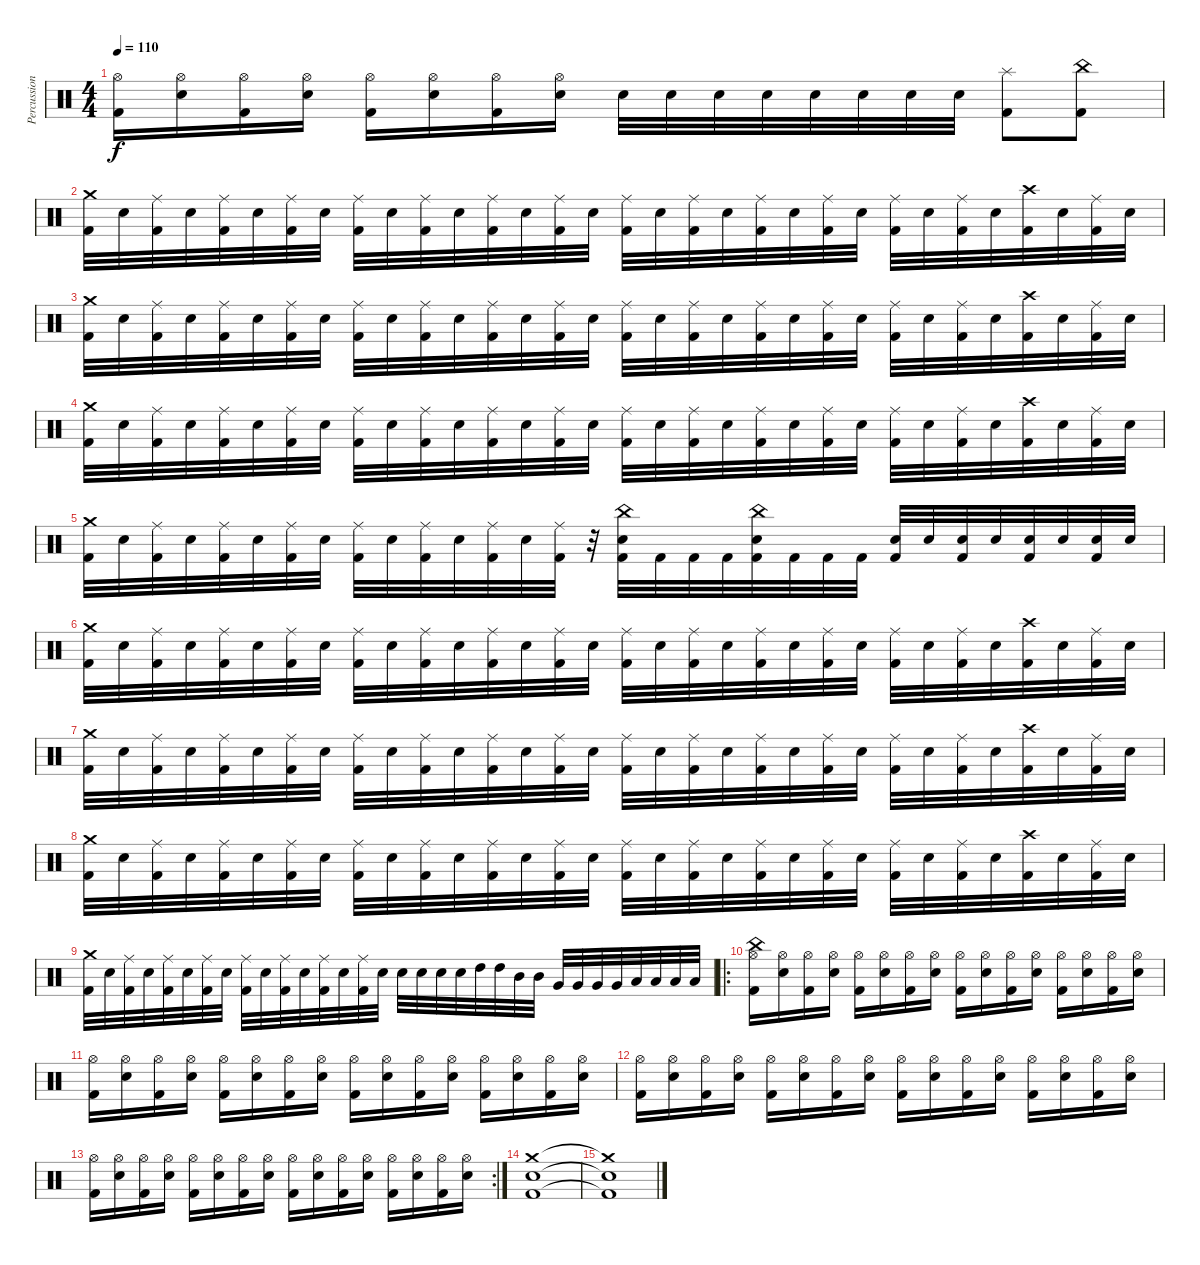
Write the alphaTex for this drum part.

\track ("Percussion" "Percussion") {instrument percussion}
\staff {score}
\articulation defaults
\ts (4 4)
\tempo 110
\clef neutral
\ks c
("Hi-Hat (open)" "Kick (hit) 2").16{dy f} ("Hi-Hat (open)" "Electric Snare (hit)").16 ("Hi-Hat (open)" "Kick (hit) 2").16 ("Hi-Hat (open)" "Electric Snare (hit)").16 ("Hi-Hat (open)" "Kick (hit) 2").16 ("Hi-Hat (open)" "Electric Snare (hit)").16 ("Hi-Hat (open)" "Kick (hit) 2").16 ("Hi-Hat (open)" "Electric Snare (hit)").16 "Electric Snare (hit)".32 "Electric Snare (hit)".32 "Electric Snare (hit)".32 "Electric Snare (hit)".32 "Electric Snare (hit)".32 "Electric Snare (hit)".32 "Electric Snare (hit)".32 "Electric Snare (hit)".32 ("Splash (hit)" "Kick (hit) 2").8 ("China (hit)" "Kick (hit) 2").8 |
("Crash medium (hit)" "Kick (hit) 2").32 "Electric Snare (hit)".32 ("Ride (middle)" "Kick (hit) 2").32 "Electric Snare (hit)".32 ("Ride (middle)" "Kick (hit) 2").32 "Electric Snare (hit)".32 ("Ride (middle)" "Kick (hit) 2").32 "Electric Snare (hit)".32 ("Ride (middle)" "Kick (hit) 2").32 "Electric Snare (hit)".32 ("Ride (middle)" "Kick (hit) 2").32 "Electric Snare (hit)".32 ("Ride (middle)" "Kick (hit) 2").32 "Electric Snare (hit)".32 ("Ride (middle)" "Kick (hit) 2").32 "Electric Snare (hit)".32 ("Ride (middle)" "Kick (hit) 2").32 "Electric Snare (hit)".32 ("Ride (middle)" "Kick (hit) 2").32 "Electric Snare (hit)".32 ("Ride (middle)" "Kick (hit) 2").32 "Electric Snare (hit)".32 ("Ride (middle)" "Kick (hit) 2").32 "Electric Snare (hit)".32 ("Ride (middle)" "Kick (hit) 2").32 "Electric Snare (hit)".32 ("Ride (middle)" "Kick (hit) 2").32 "Electric Snare (hit)".32 ("Crash high (hit)" "Kick (hit) 2").32 "Electric Snare (hit)".32 ("Ride (middle)" "Kick (hit) 2").32 "Electric Snare (hit)".32 |
("Crash medium (hit)" "Kick (hit) 2").32 "Electric Snare (hit)".32 ("Ride (middle)" "Kick (hit) 2").32 "Electric Snare (hit)".32 ("Ride (middle)" "Kick (hit) 2").32 "Electric Snare (hit)".32 ("Ride (middle)" "Kick (hit) 2").32 "Electric Snare (hit)".32 ("Ride (middle)" "Kick (hit) 2").32 "Electric Snare (hit)".32 ("Ride (middle)" "Kick (hit) 2").32 "Electric Snare (hit)".32 ("Ride (middle)" "Kick (hit) 2").32 "Electric Snare (hit)".32 ("Ride (middle)" "Kick (hit) 2").32 "Electric Snare (hit)".32 ("Ride (middle)" "Kick (hit) 2").32 "Electric Snare (hit)".32 ("Ride (middle)" "Kick (hit) 2").32 "Electric Snare (hit)".32 ("Ride (middle)" "Kick (hit) 2").32 "Electric Snare (hit)".32 ("Ride (middle)" "Kick (hit) 2").32 "Electric Snare (hit)".32 ("Ride (middle)" "Kick (hit) 2").32 "Electric Snare (hit)".32 ("Ride (middle)" "Kick (hit) 2").32 "Electric Snare (hit)".32 ("Crash high (hit)" "Kick (hit) 2").32 "Electric Snare (hit)".32 ("Ride (middle)" "Kick (hit) 2").32 "Electric Snare (hit)".32 |
("Crash medium (hit)" "Kick (hit) 2").32 "Electric Snare (hit)".32 ("Ride (middle)" "Kick (hit) 2").32 "Electric Snare (hit)".32 ("Ride (middle)" "Kick (hit) 2").32 "Electric Snare (hit)".32 ("Ride (middle)" "Kick (hit) 2").32 "Electric Snare (hit)".32 ("Ride (middle)" "Kick (hit) 2").32 "Electric Snare (hit)".32 ("Ride (middle)" "Kick (hit) 2").32 "Electric Snare (hit)".32 ("Ride (middle)" "Kick (hit) 2").32 "Electric Snare (hit)".32 ("Ride (middle)" "Kick (hit) 2").32 "Electric Snare (hit)".32 ("Ride (middle)" "Kick (hit) 2").32 "Electric Snare (hit)".32 ("Ride (middle)" "Kick (hit) 2").32 "Electric Snare (hit)".32 ("Ride (middle)" "Kick (hit) 2").32 "Electric Snare (hit)".32 ("Ride (middle)" "Kick (hit) 2").32 "Electric Snare (hit)".32 ("Ride (middle)" "Kick (hit) 2").32 "Electric Snare (hit)".32 ("Ride (middle)" "Kick (hit) 2").32 "Electric Snare (hit)".32 ("Crash high (hit)" "Kick (hit) 2").32 "Electric Snare (hit)".32 ("Ride (middle)" "Kick (hit) 2").32 "Electric Snare (hit)".32 |
("Crash medium (hit)" "Kick (hit) 2").32 "Electric Snare (hit)".32 ("Ride (middle)" "Kick (hit) 2").32 "Electric Snare (hit)".32 ("Ride (middle)" "Kick (hit) 2").32 "Electric Snare (hit)".32 ("Ride (middle)" "Kick (hit) 2").32 "Electric Snare (hit)".32 ("Ride (middle)" "Kick (hit) 2").32 "Electric Snare (hit)".32 ("Ride (middle)" "Kick (hit) 2").32 "Electric Snare (hit)".32 ("Ride (middle)" "Kick (hit) 2").32 "Electric Snare (hit)".32 ("Ride (middle)" "Kick (hit) 2").32 r.32 ("China (hit)" "Electric Snare (hit)" "Kick (hit) 2").32 "Kick (hit) 2".32 "Kick (hit) 2".32 "Kick (hit) 2".32 ("China (hit)" "Electric Snare (hit)" "Kick (hit) 2").32 "Kick (hit) 2".32 "Kick (hit) 2".32 "Kick (hit) 2".32 ("Electric Snare (hit)" "Kick (hit) 2").32 "Electric Snare (hit)".32 ("Electric Snare (hit)" "Kick (hit) 2").32 "Electric Snare (hit)".32 ("Electric Snare (hit)" "Kick (hit) 2").32 "Electric Snare (hit)".32 ("Electric Snare (hit)" "Kick (hit) 2").32 "Electric Snare (hit)".32 |
("Crash medium (hit)" "Kick (hit) 2").32 "Electric Snare (hit)".32 ("Ride (middle)" "Kick (hit) 2").32 "Electric Snare (hit)".32 ("Ride (middle)" "Kick (hit) 2").32 "Electric Snare (hit)".32 ("Ride (middle)" "Kick (hit) 2").32 "Electric Snare (hit)".32 ("Ride (middle)" "Kick (hit) 2").32 "Electric Snare (hit)".32 ("Ride (middle)" "Kick (hit) 2").32 "Electric Snare (hit)".32 ("Ride (middle)" "Kick (hit) 2").32 "Electric Snare (hit)".32 ("Ride (middle)" "Kick (hit) 2").32 "Electric Snare (hit)".32 ("Ride (middle)" "Kick (hit) 2").32 "Electric Snare (hit)".32 ("Ride (middle)" "Kick (hit) 2").32 "Electric Snare (hit)".32 ("Ride (middle)" "Kick (hit) 2").32 "Electric Snare (hit)".32 ("Ride (middle)" "Kick (hit) 2").32 "Electric Snare (hit)".32 ("Ride (middle)" "Kick (hit) 2").32 "Electric Snare (hit)".32 ("Ride (middle)" "Kick (hit) 2").32 "Electric Snare (hit)".32 ("Crash high (hit)" "Kick (hit) 2").32 "Electric Snare (hit)".32 ("Ride (middle)" "Kick (hit) 2").32 "Electric Snare (hit)".32 |
("Crash medium (hit)" "Kick (hit) 2").32 "Electric Snare (hit)".32 ("Ride (middle)" "Kick (hit) 2").32 "Electric Snare (hit)".32 ("Ride (middle)" "Kick (hit) 2").32 "Electric Snare (hit)".32 ("Ride (middle)" "Kick (hit) 2").32 "Electric Snare (hit)".32 ("Ride (middle)" "Kick (hit) 2").32 "Electric Snare (hit)".32 ("Ride (middle)" "Kick (hit) 2").32 "Electric Snare (hit)".32 ("Ride (middle)" "Kick (hit) 2").32 "Electric Snare (hit)".32 ("Ride (middle)" "Kick (hit) 2").32 "Electric Snare (hit)".32 ("Ride (middle)" "Kick (hit) 2").32 "Electric Snare (hit)".32 ("Ride (middle)" "Kick (hit) 2").32 "Electric Snare (hit)".32 ("Ride (middle)" "Kick (hit) 2").32 "Electric Snare (hit)".32 ("Ride (middle)" "Kick (hit) 2").32 "Electric Snare (hit)".32 ("Ride (middle)" "Kick (hit) 2").32 "Electric Snare (hit)".32 ("Ride (middle)" "Kick (hit) 2").32 "Electric Snare (hit)".32 ("Crash high (hit)" "Kick (hit) 2").32 "Electric Snare (hit)".32 ("Ride (middle)" "Kick (hit) 2").32 "Electric Snare (hit)".32 |
("Crash medium (hit)" "Kick (hit) 2").32 "Electric Snare (hit)".32 ("Ride (middle)" "Kick (hit) 2").32 "Electric Snare (hit)".32 ("Ride (middle)" "Kick (hit) 2").32 "Electric Snare (hit)".32 ("Ride (middle)" "Kick (hit) 2").32 "Electric Snare (hit)".32 ("Ride (middle)" "Kick (hit) 2").32 "Electric Snare (hit)".32 ("Ride (middle)" "Kick (hit) 2").32 "Electric Snare (hit)".32 ("Ride (middle)" "Kick (hit) 2").32 "Electric Snare (hit)".32 ("Ride (middle)" "Kick (hit) 2").32 "Electric Snare (hit)".32 ("Ride (middle)" "Kick (hit) 2").32 "Electric Snare (hit)".32 ("Ride (middle)" "Kick (hit) 2").32 "Electric Snare (hit)".32 ("Ride (middle)" "Kick (hit) 2").32 "Electric Snare (hit)".32 ("Ride (middle)" "Kick (hit) 2").32 "Electric Snare (hit)".32 ("Ride (middle)" "Kick (hit) 2").32 "Electric Snare (hit)".32 ("Ride (middle)" "Kick (hit) 2").32 "Electric Snare (hit)".32 ("Crash high (hit)" "Kick (hit) 2").32 "Electric Snare (hit)".32 ("Ride (middle)" "Kick (hit) 2").32 "Electric Snare (hit)".32 |
("Crash medium (hit)" "Kick (hit) 2").32 "Electric Snare (hit)".32 ("Ride (middle)" "Kick (hit) 2").32 "Electric Snare (hit)".32 ("Ride (middle)" "Kick (hit) 2").32 "Electric Snare (hit)".32 ("Ride (middle)" "Kick (hit) 2").32 "Electric Snare (hit)".32 ("Ride (middle)" "Kick (hit) 2").32 "Electric Snare (hit)".32 ("Ride (middle)" "Kick (hit) 2").32 "Electric Snare (hit)".32 ("Ride (middle)" "Kick (hit) 2").32 "Electric Snare (hit)".32 ("Ride (middle)" "Kick (hit) 2").32 "Electric Snare (hit)".32 "Electric Snare (hit)".32 "Electric Snare (hit)".32 "Electric Snare (hit)".32 "Electric Snare (hit)".32 "High Tom (hit)".32 "High Tom (hit)".32 "Mid Tom (hit)".32 "Mid Tom (hit)".32 "Very Low Tom (hit)".32 "Very Low Tom (hit)".32 "Very Low Tom (hit)".32 "Very Low Tom (hit)".32 "Low Floor Tom (hit)".32 "Low Floor Tom (hit)".32 "Low Floor Tom (hit)".32 "Low Floor Tom (hit)".32 |
\ro
("China (hit)" "Hi-Hat (open)" "Kick (hit) 2").16 ("Hi-Hat (open)" "Electric Snare (hit)").16 ("Hi-Hat (open)" "Kick (hit) 2").16 ("Hi-Hat (open)" "Electric Snare (hit)").16 ("Hi-Hat (open)" "Kick (hit) 2").16 ("Hi-Hat (open)" "Electric Snare (hit)").16 ("Hi-Hat (open)" "Kick (hit) 2").16 ("Hi-Hat (open)" "Electric Snare (hit)").16 ("Hi-Hat (open)" "Kick (hit) 2").16 ("Hi-Hat (open)" "Electric Snare (hit)").16 ("Hi-Hat (open)" "Kick (hit) 2").16 ("Hi-Hat (open)" "Electric Snare (hit)").16 ("Hi-Hat (open)" "Kick (hit) 2").16 ("Hi-Hat (open)" "Electric Snare (hit)").16 ("Hi-Hat (open)" "Kick (hit) 2").16 ("Hi-Hat (open)" "Electric Snare (hit)").16 |
("Hi-Hat (open)" "Kick (hit) 2").16 ("Hi-Hat (open)" "Electric Snare (hit)").16 ("Hi-Hat (open)" "Kick (hit) 2").16 ("Hi-Hat (open)" "Electric Snare (hit)").16 ("Hi-Hat (open)" "Kick (hit) 2").16 ("Hi-Hat (open)" "Electric Snare (hit)").16 ("Hi-Hat (open)" "Kick (hit) 2").16 ("Hi-Hat (open)" "Electric Snare (hit)").16 ("Hi-Hat (open)" "Kick (hit) 2").16 ("Hi-Hat (open)" "Electric Snare (hit)").16 ("Hi-Hat (open)" "Kick (hit) 2").16 ("Hi-Hat (open)" "Electric Snare (hit)").16 ("Hi-Hat (open)" "Kick (hit) 2").16 ("Hi-Hat (open)" "Electric Snare (hit)").16 ("Hi-Hat (open)" "Kick (hit) 2").16 ("Hi-Hat (open)" "Electric Snare (hit)").16 |
("Hi-Hat (open)" "Kick (hit) 2").16 ("Hi-Hat (open)" "Electric Snare (hit)").16 ("Hi-Hat (open)" "Kick (hit) 2").16 ("Hi-Hat (open)" "Electric Snare (hit)").16 ("Hi-Hat (open)" "Kick (hit) 2").16 ("Hi-Hat (open)" "Electric Snare (hit)").16 ("Hi-Hat (open)" "Kick (hit) 2").16 ("Hi-Hat (open)" "Electric Snare (hit)").16 ("Hi-Hat (open)" "Kick (hit) 2").16 ("Hi-Hat (open)" "Electric Snare (hit)").16 ("Hi-Hat (open)" "Kick (hit) 2").16 ("Hi-Hat (open)" "Electric Snare (hit)").16 ("Hi-Hat (open)" "Kick (hit) 2").16 ("Hi-Hat (open)" "Electric Snare (hit)").16 ("Hi-Hat (open)" "Kick (hit) 2").16 ("Hi-Hat (open)" "Electric Snare (hit)").16 |
\rc 2
("Hi-Hat (open)" "Kick (hit) 2").16 ("Hi-Hat (open)" "Electric Snare (hit)").16 ("Hi-Hat (open)" "Kick (hit) 2").16 ("Hi-Hat (open)" "Electric Snare (hit)").16 ("Hi-Hat (open)" "Kick (hit) 2").16 ("Hi-Hat (open)" "Electric Snare (hit)").16 ("Hi-Hat (open)" "Kick (hit) 2").16 ("Hi-Hat (open)" "Electric Snare (hit)").16 ("Hi-Hat (open)" "Kick (hit) 2").16 ("Hi-Hat (open)" "Electric Snare (hit)").16 ("Hi-Hat (open)" "Kick (hit) 2").16 ("Hi-Hat (open)" "Electric Snare (hit)").16 ("Hi-Hat (open)" "Kick (hit) 2").16 ("Hi-Hat (open)" "Electric Snare (hit)").16 ("Hi-Hat (open)" "Kick (hit) 2").16 ("Hi-Hat (open)" "Electric Snare (hit)").16 |
("Crash medium (hit)" "Electric Snare (hit)" "Kick (hit) 2").1 |
("Crash medium (hit)"{t} "Electric Snare (hit)"{t} "Kick (hit) 2"{t}).1
